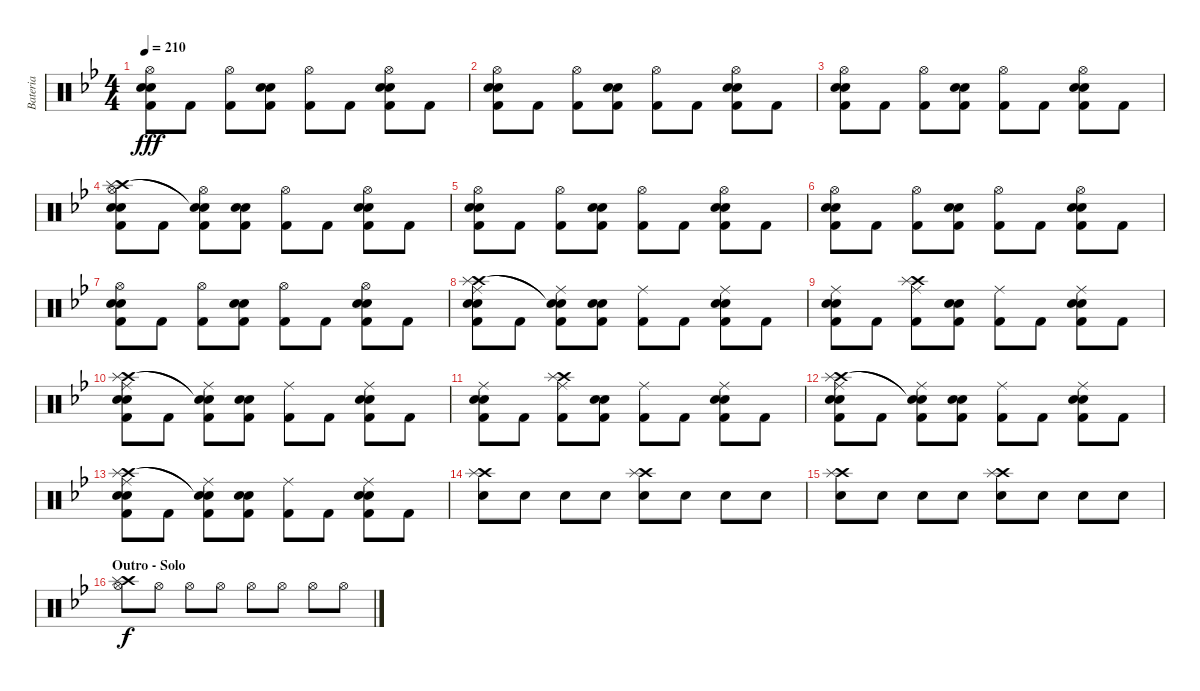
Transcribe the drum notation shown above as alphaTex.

\track ("Bateria" "Bateria") {instrument percussion}
\staff {score}
\articulation defaults
\ts (4 4)
\tempo 210
\clef neutral
\ks gminor
("Hi-Hat (open)" "Snare (hit) 2" "Kick (hit) 2" "Electric Snare (hit)").8{dy fff} "Kick (hit) 2".8 ("Hi-Hat (open)" "Kick (hit) 2").8 ("Snare (hit) 2" "Kick (hit) 2" "Electric Snare (hit)").8 ("Hi-Hat (open)" "Kick (hit) 2").8 "Kick (hit) 2".8 ("Hi-Hat (open)" "Snare (hit) 2" "Kick (hit) 2" "Electric Snare (hit)").8 "Kick (hit) 2".8 |
("Hi-Hat (open)" "Snare (hit) 2" "Kick (hit) 2" "Electric Snare (hit)").8 "Kick (hit) 2".8 ("Hi-Hat (open)" "Kick (hit) 2").8 ("Snare (hit) 2" "Kick (hit) 2" "Electric Snare (hit)").8 ("Hi-Hat (open)" "Kick (hit) 2").8 "Kick (hit) 2".8 ("Hi-Hat (open)" "Snare (hit) 2" "Kick (hit) 2" "Electric Snare (hit)").8 "Kick (hit) 2".8 |
("Hi-Hat (open)" "Snare (hit) 2" "Kick (hit) 2" "Electric Snare (hit)").8 "Kick (hit) 2".8 ("Hi-Hat (open)" "Kick (hit) 2").8 ("Snare (hit) 2" "Kick (hit) 2" "Electric Snare (hit)").8 ("Hi-Hat (open)" "Kick (hit) 2").8 "Kick (hit) 2".8 ("Hi-Hat (open)" "Snare (hit) 2" "Kick (hit) 2" "Electric Snare (hit)").8 "Kick (hit) 2".8 |
("Hi-Hat (open)" "Crash high (hit)" "Splash (hit)" "Snare (hit) 2" "Kick (hit) 2" "Electric Snare (hit)").8 "Kick (hit) 2".8 ("Hi-Hat (open)" "Snare (hit)"{t} "Snare (hit)"{t} "Kick (hit) 2").8 ("Snare (hit) 2" "Kick (hit) 2" "Electric Snare (hit)").8 ("Hi-Hat (open)" "Kick (hit) 2").8 "Kick (hit) 2".8 ("Hi-Hat (open)" "Snare (hit) 2" "Kick (hit) 2" "Electric Snare (hit)").8 "Kick (hit) 2".8 |
("Hi-Hat (open)" "Snare (hit) 2" "Kick (hit) 2" "Electric Snare (hit)").8 "Kick (hit) 2".8 ("Hi-Hat (open)" "Kick (hit) 2").8 ("Snare (hit) 2" "Kick (hit) 2" "Electric Snare (hit)").8 ("Hi-Hat (open)" "Kick (hit) 2").8 "Kick (hit) 2".8 ("Hi-Hat (open)" "Snare (hit) 2" "Kick (hit) 2" "Electric Snare (hit)").8 "Kick (hit) 2".8 |
("Hi-Hat (open)" "Snare (hit) 2" "Kick (hit) 2" "Electric Snare (hit)").8 "Kick (hit) 2".8 ("Hi-Hat (open)" "Kick (hit) 2").8 ("Snare (hit) 2" "Kick (hit) 2" "Electric Snare (hit)").8 ("Hi-Hat (open)" "Kick (hit) 2").8 "Kick (hit) 2".8 ("Hi-Hat (open)" "Snare (hit) 2" "Kick (hit) 2" "Electric Snare (hit)").8 "Kick (hit) 2".8 |
("Hi-Hat (open)" "Snare (hit) 2" "Kick (hit) 2" "Electric Snare (hit)").8 "Kick (hit) 2".8 ("Hi-Hat (open)" "Kick (hit) 2").8 ("Snare (hit) 2" "Kick (hit) 2" "Electric Snare (hit)").8 ("Hi-Hat (open)" "Kick (hit) 2").8 "Kick (hit) 2".8 ("Hi-Hat (open)" "Snare (hit) 2" "Kick (hit) 2" "Electric Snare (hit)").8 "Kick (hit) 2".8 |
("Ride (middle)" "Crash high (hit)" "Splash (hit)" "Snare (hit) 2" "Kick (hit) 2" "Electric Snare (hit)").8 "Kick (hit) 2".8 ("Ride (middle)" "Snare (hit)"{t} "Snare (hit)"{t} "Kick (hit) 2").8 ("Snare (hit) 2" "Kick (hit) 2" "Electric Snare (hit)").8 ("Ride (middle)" "Kick (hit) 2").8 "Kick (hit) 2".8 ("Ride (middle)" "Snare (hit) 2" "Kick (hit) 2" "Electric Snare (hit)").8 "Kick (hit) 2".8 |
("Ride (middle)" "Snare (hit) 2" "Kick (hit) 2" "Electric Snare (hit)").8 "Kick (hit) 2".8 ("Ride (middle)" "Crash high (hit)" "Splash (hit)" "Kick (hit) 2").8 ("Snare (hit) 2" "Kick (hit) 2" "Electric Snare (hit)").8 ("Ride (middle)" "Kick (hit) 2").8 "Kick (hit) 2".8 ("Ride (middle)" "Snare (hit) 2" "Kick (hit) 2" "Electric Snare (hit)").8 "Kick (hit) 2".8 |
("Ride (middle)" "Crash high (hit)" "Splash (hit)" "Snare (hit) 2" "Kick (hit) 2" "Electric Snare (hit)").8 "Kick (hit) 2".8 ("Ride (middle)" "Snare (hit)"{t} "Snare (hit)"{t} "Kick (hit) 2").8 ("Snare (hit) 2" "Kick (hit) 2" "Electric Snare (hit)").8 ("Ride (middle)" "Kick (hit) 2").8 "Kick (hit) 2".8 ("Ride (middle)" "Snare (hit) 2" "Kick (hit) 2" "Electric Snare (hit)").8 "Kick (hit) 2".8 |
("Ride (middle)" "Snare (hit) 2" "Kick (hit) 2" "Electric Snare (hit)").8 "Kick (hit) 2".8 ("Ride (middle)" "Crash high (hit)" "Splash (hit)" "Kick (hit) 2").8 ("Snare (hit) 2" "Kick (hit) 2" "Electric Snare (hit)").8 ("Ride (middle)" "Kick (hit) 2").8 "Kick (hit) 2".8 ("Ride (middle)" "Snare (hit) 2" "Kick (hit) 2" "Electric Snare (hit)").8 "Kick (hit) 2".8 |
("Ride (middle)" "Crash high (hit)" "Splash (hit)" "Snare (hit) 2" "Kick (hit) 2" "Electric Snare (hit)").8 "Kick (hit) 2".8 ("Ride (middle)" "Snare (hit)"{t} "Snare (hit)"{t} "Kick (hit) 2").8 ("Snare (hit) 2" "Kick (hit) 2" "Electric Snare (hit)").8 ("Ride (middle)" "Kick (hit) 2").8 "Kick (hit) 2".8 ("Ride (middle)" "Snare (hit) 2" "Kick (hit) 2" "Electric Snare (hit)").8 "Kick (hit) 2".8 |
("Ride (middle)" "Crash high (hit)" "Splash (hit)" "Snare (hit) 2" "Kick (hit) 2" "Electric Snare (hit)").8 "Kick (hit) 2".8 ("Ride (middle)" "Snare (hit)"{t} "Snare (hit)"{t} "Kick (hit) 2").8 ("Snare (hit) 2" "Kick (hit) 2" "Electric Snare (hit)").8 ("Ride (middle)" "Kick (hit) 2").8 "Kick (hit) 2".8 ("Ride (middle)" "Snare (hit) 2" "Kick (hit) 2" "Electric Snare (hit)").8 "Kick (hit) 2".8 |
("Crash high (hit)" "Splash (hit)" "Snare (hit) 2").8 "Electric Snare (hit)".8 "Electric Snare (hit)".8 "Snare (hit) 2".8 ("Crash high (hit)" "Splash (hit)" "Electric Snare (hit)").8 "Electric Snare (hit)".8 "Snare (hit) 2".8 "Electric Snare (hit)".8 |
("Crash high (hit)" "Splash (hit)" "Snare (hit) 2").8 "Electric Snare (hit)".8 "Electric Snare (hit)".8 "Snare (hit) 2".8 ("Crash high (hit)" "Splash (hit)" "Electric Snare (hit)").8 "Electric Snare (hit)".8 "Snare (hit) 2".8 "Electric Snare (hit)".8 |
\section ("" "Outro - Solo")
("Hi-Hat (open)" "Crash high (hit)" "Splash (hit)").8{dy f} "Hi-Hat (open)".8 "Hi-Hat (open)".8 "Hi-Hat (open)".8 "Hi-Hat (open)".8 "Hi-Hat (open)".8 "Hi-Hat (open)".8 "Hi-Hat (open)".8
